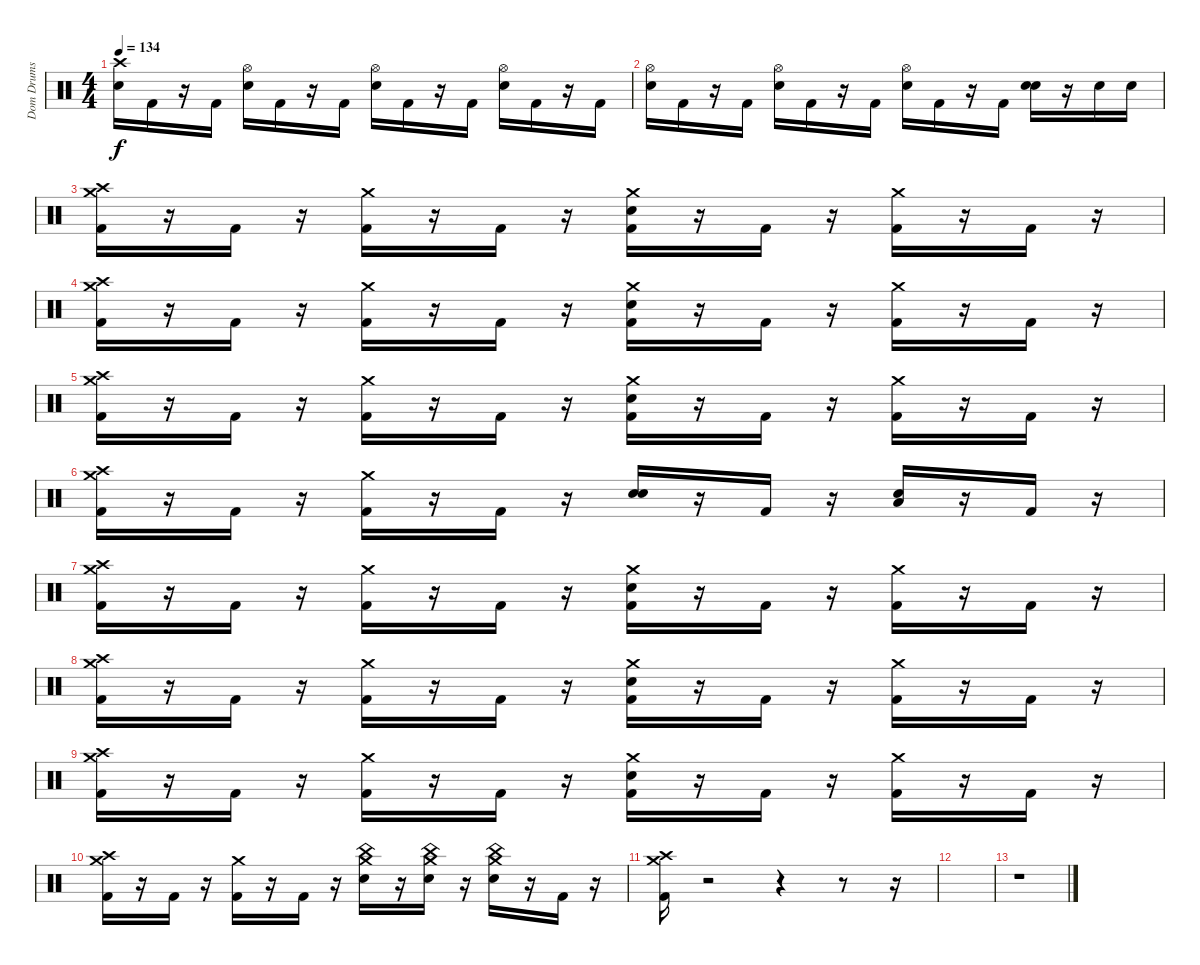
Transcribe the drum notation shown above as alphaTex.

\track ("Dom Drums" "Dom Drums") {instrument percussion}
\staff {score}
\articulation defaults
\ts (4 4)
\tempo 134
\clef neutral
\ks c
("Crash high (hit)" "Electric Snare (hit)").16{dy f} "Kick (hit) 2".16 r.16 "Kick (hit) 2".16 ("Hi-Hat (open)" "Electric Snare (hit)").16 "Kick (hit) 2".16 r.16 "Kick (hit) 2".16 ("Hi-Hat (open)" "Electric Snare (hit)").16 "Kick (hit) 2".16 r.16 "Kick (hit) 2".16 ("Hi-Hat (open)" "Electric Snare (hit)").16 "Kick (hit) 2".16 r.16 "Kick (hit) 2".16 |
("Hi-Hat (open)" "Electric Snare (hit)").16 "Kick (hit) 2".16 r.16 "Kick (hit) 2".16 ("Hi-Hat (open)" "Electric Snare (hit)").16 "Kick (hit) 2".16 r.16 "Kick (hit) 2".16 ("Hi-Hat (open)" "Electric Snare (hit)").16 "Kick (hit) 2".16 r.16 "Kick (hit) 2".16 ("Electric Snare (hit)" "Electric Snare (hit)").16 r.16 "Electric Snare (hit)".16 "Electric Snare (hit)".16 |
("Crash high (hit)" "Crash medium (hit)" "Kick (hit) 2").16 r.16 "Kick (hit) 2".16 r.16 ("Crash medium (hit)" "Kick (hit) 2").16 r.16 "Kick (hit) 2".16 r.16 ("Crash medium (hit)" "Electric Snare (hit)" "Kick (hit) 2").16 r.16 "Kick (hit) 2".16 r.16 ("Crash medium (hit)" "Kick (hit) 2").16 r.16 "Kick (hit) 2".16 r.16 |
("Crash medium (hit)" "Crash high (hit)" "Kick (hit) 2").16 r.16 "Kick (hit) 2".16 r.16 ("Crash medium (hit)" "Kick (hit) 2").16 r.16 "Kick (hit) 2".16 r.16 ("Crash medium (hit)" "Electric Snare (hit)" "Kick (hit) 2").16 r.16 "Kick (hit) 2".16 r.16 ("Crash medium (hit)" "Kick (hit) 2").16 r.16 "Kick (hit) 2".16 r.16 |
("Crash medium (hit)" "Crash high (hit)" "Kick (hit) 2").16 r.16 "Kick (hit) 2".16 r.16 ("Crash medium (hit)" "Kick (hit) 2").16 r.16 "Kick (hit) 2".16 r.16 ("Crash medium (hit)" "Electric Snare (hit)" "Kick (hit) 2").16 r.16 "Kick (hit) 2".16 r.16 ("Crash medium (hit)" "Kick (hit) 2").16 r.16 "Kick (hit) 2".16 r.16 |
("Crash medium (hit)" "Crash high (hit)" "Kick (hit) 2").16 r.16 "Kick (hit) 2".16 r.16 ("Crash medium (hit)" "Kick (hit) 2").16 r.16 "Kick (hit) 2".16 r.16 ("Electric Snare (hit)" "Electric Snare (hit)").16 r.16 "Kick (hit) 2".16 r.16 ("Low Tom (hit)" "Electric Snare (hit)").16 r.16 "Kick (hit) 2".16 r.16 |
("Crash medium (hit)" "Crash high (hit)" "Kick (hit) 2").16 r.16 "Kick (hit) 2".16 r.16 ("Crash medium (hit)" "Kick (hit) 2").16 r.16 "Kick (hit) 2".16 r.16 ("Crash medium (hit)" "Electric Snare (hit)" "Kick (hit) 2").16 r.16 "Kick (hit) 2".16 r.16 ("Crash medium (hit)" "Kick (hit) 2").16 r.16 "Kick (hit) 2".16 r.16 |
("Crash medium (hit)" "Crash high (hit)" "Kick (hit) 2").16 r.16 "Kick (hit) 2".16 r.16 ("Crash medium (hit)" "Kick (hit) 2").16 r.16 "Kick (hit) 2".16 r.16 ("Crash medium (hit)" "Electric Snare (hit)" "Kick (hit) 2").16 r.16 "Kick (hit) 2".16 r.16 ("Crash medium (hit)" "Kick (hit) 2").16 r.16 "Kick (hit) 2".16 r.16 |
("Crash medium (hit)" "Crash high (hit)" "Kick (hit) 2").16 r.16 "Kick (hit) 2".16 r.16 ("Crash medium (hit)" "Kick (hit) 2").16 r.16 "Kick (hit) 2".16 r.16 ("Crash medium (hit)" "Electric Snare (hit)" "Kick (hit) 2").16 r.16 "Kick (hit) 2".16 r.16 ("Crash medium (hit)" "Kick (hit) 2").16 r.16 "Kick (hit) 2".16 r.16 |
("Crash medium (hit)" "Crash high (hit)" "Kick (hit) 2").16 r.16 "Kick (hit) 2".16 r.16 ("Crash medium (hit)" "Kick (hit) 2").16 r.16 "Kick (hit) 2".16 r.16 ("China (hit)" "Crash medium (hit)" "Electric Snare (hit)").16 r.16 ("China (hit)" "Crash medium (hit)" "Electric Snare (hit)").16 r.16 ("China (hit)" "Crash medium (hit)" "Electric Snare (hit)").16 r.16 "Kick (hit) 2".16 r.16 |
("Crash medium (hit)" "Crash high (hit)" "Kick (hit) 2").16 r.2 r.4 r.8 r.16 |
|
r.1
